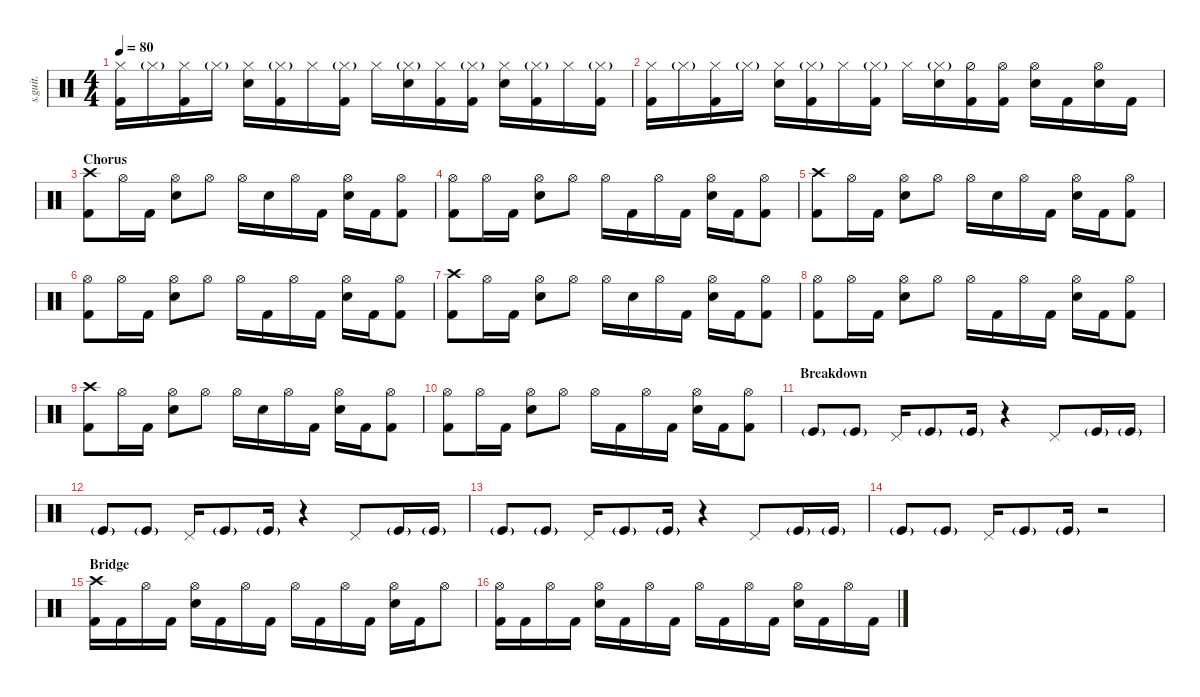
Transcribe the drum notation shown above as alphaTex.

\defaultSystemsLayout 4
\hideDynamics
\bracketExtendMode nobrackets
\track ("" "s.guit.") {instrument percussion}
\staff {score}
\articulation defaults
\ts (4 4)
\tempo 80
\clef neutral
\ks c
("Hi-Hat (closed)" "Kick (hit) 2").16{dy ff} "Hi-Hat (closed)"{g}.16 ("Hi-Hat (closed)" "Kick (hit) 2").16 "Hi-Hat (closed)"{g}.16 ("Hi-Hat (closed)" "Snare (hit) 2").16 ("Hi-Hat (closed)"{g} "Kick (hit) 2").16 "Hi-Hat (closed)".16 ("Hi-Hat (closed)"{g} "Kick (hit) 2").16 "Hi-Hat (closed)".16 ("Hi-Hat (closed)"{g} "Snare (hit) 2").16 ("Hi-Hat (closed)" "Kick (hit) 2").16 ("Hi-Hat (closed)"{g} "Kick (hit) 2").16 ("Hi-Hat (closed)" "Snare (hit) 2").16 ("Hi-Hat (closed)"{g} "Kick (hit) 2").16 "Hi-Hat (closed)".16 ("Hi-Hat (closed)"{g} "Kick (hit) 2").16 |
("Hi-Hat (closed)" "Kick (hit) 2").16 "Hi-Hat (closed)"{g}.16 ("Hi-Hat (closed)" "Kick (hit) 2").16 "Hi-Hat (closed)"{g}.16 ("Hi-Hat (closed)" "Snare (hit) 2").16 ("Hi-Hat (closed)"{g} "Kick (hit) 2").16 "Hi-Hat (closed)".16 ("Hi-Hat (closed)"{g} "Kick (hit) 2").16 "Hi-Hat (closed)".16 ("Hi-Hat (closed)"{g} "Snare (hit) 2").16 ("Hi-Hat (half)" "Kick (hit) 2").16 ("Hi-Hat (open)" "Kick (hit) 2").16 ("Hi-Hat (open)" "Snare (hit) 2").16 "Kick (hit) 2".16 ("Hi-Hat (open)" "Snare (hit) 2").16 "Kick (hit) 2".16 |
\section ("" "Chorus")
("Crash high (hit)" "Kick (hit) 2").8 "Hi-Hat (open)".16 "Kick (hit) 2".16 ("Hi-Hat (open)" "Snare (hit) 2").8 "Hi-Hat (open)".8 "Hi-Hat (open)".16 "Snare (hit) 2".16 "Hi-Hat (open)".16 "Kick (hit) 2".16 ("Hi-Hat (open)" "Snare (hit) 2").16 "Kick (hit) 2".16 ("Hi-Hat (open)" "Kick (hit) 2").8 |
("Hi-Hat (open)" "Kick (hit) 2").8 "Hi-Hat (open)".16 "Kick (hit) 2".16 ("Hi-Hat (open)" "Snare (hit) 2").8 "Hi-Hat (open)".8 "Hi-Hat (open)".16 "Kick (hit) 2".16 "Hi-Hat (open)".16 "Kick (hit) 2".16 ("Hi-Hat (open)" "Snare (hit) 2").16 "Kick (hit) 2".16 ("Hi-Hat (open)" "Kick (hit) 2").8 |
("Crash high (hit)" "Kick (hit) 2").8 "Hi-Hat (open)".16 "Kick (hit) 2".16 ("Hi-Hat (open)" "Snare (hit) 2").8 "Hi-Hat (open)".8 "Hi-Hat (open)".16 "Snare (hit) 2".16 "Hi-Hat (open)".16 "Kick (hit) 2".16 ("Hi-Hat (open)" "Snare (hit) 2").16 "Kick (hit) 2".16 ("Hi-Hat (open)" "Kick (hit) 2").8 |
("Hi-Hat (open)" "Kick (hit) 2").8 "Hi-Hat (open)".16 "Kick (hit) 2".16 ("Hi-Hat (open)" "Snare (hit) 2").8 "Hi-Hat (open)".8 "Hi-Hat (open)".16 "Kick (hit) 2".16 "Hi-Hat (open)".16 "Kick (hit) 2".16 ("Hi-Hat (open)" "Snare (hit) 2").16 "Kick (hit) 2".16 ("Hi-Hat (open)" "Kick (hit) 2").8 |
("Crash high (hit)" "Kick (hit) 2").8 "Hi-Hat (open)".16 "Kick (hit) 2".16 ("Hi-Hat (open)" "Snare (hit) 2").8 "Hi-Hat (open)".8 "Hi-Hat (open)".16 "Snare (hit) 2".16 "Hi-Hat (open)".16 "Kick (hit) 2".16 ("Hi-Hat (open)" "Snare (hit) 2").16 "Kick (hit) 2".16 ("Hi-Hat (open)" "Kick (hit) 2").8 |
("Hi-Hat (open)" "Kick (hit) 2").8 "Hi-Hat (open)".16 "Kick (hit) 2".16 ("Hi-Hat (open)" "Snare (hit) 2").8 "Hi-Hat (open)".8 "Hi-Hat (open)".16 "Kick (hit) 2".16 "Hi-Hat (open)".16 "Kick (hit) 2".16 ("Hi-Hat (open)" "Snare (hit) 2").16 "Kick (hit) 2".16 ("Hi-Hat (open)" "Kick (hit) 2").8 |
("Crash high (hit)" "Kick (hit) 2").8 "Hi-Hat (open)".16 "Kick (hit) 2".16 ("Hi-Hat (open)" "Snare (hit) 2").8 "Hi-Hat (open)".8 "Hi-Hat (open)".16 "Snare (hit) 2".16 "Hi-Hat (open)".16 "Kick (hit) 2".16 ("Hi-Hat (open)" "Snare (hit) 2").16 "Kick (hit) 2".16 ("Hi-Hat (open)" "Kick (hit) 2").8 |
("Hi-Hat (open)" "Kick (hit) 2").8 "Hi-Hat (open)".16 "Kick (hit) 2".16 ("Hi-Hat (open)" "Snare (hit) 2").8 "Hi-Hat (open)".8 "Hi-Hat (open)".16 "Kick (hit) 2".16 "Hi-Hat (open)".16 "Kick (hit) 2".16 ("Hi-Hat (open)" "Snare (hit) 2").16 "Kick (hit) 2".16 ("Hi-Hat (open)" "Kick (hit) 2").8 |
\section ("" "Breakdown")
"Kick (hit)"{g}.8 "Kick (hit)"{g}.8 "Pedal Hi-Hat (hit)".16 "Kick (hit)"{g}.8 "Kick (hit)"{g}.16 r.4 "Pedal Hi-Hat (hit)".8 "Kick (hit)"{g}.16 "Kick (hit)"{g}.16 |
"Kick (hit)"{g}.8 "Kick (hit)"{g}.8 "Pedal Hi-Hat (hit)".16 "Kick (hit)"{g}.8 "Kick (hit)"{g}.16 r.4 "Pedal Hi-Hat (hit)".8 "Kick (hit)"{g}.16 "Kick (hit)"{g}.16 |
"Kick (hit)"{g}.8 "Kick (hit)"{g}.8 "Pedal Hi-Hat (hit)".16 "Kick (hit)"{g}.8 "Kick (hit)"{g}.16 r.4 "Pedal Hi-Hat (hit)".8 "Kick (hit)"{g}.16 "Kick (hit)"{g}.16 |
"Kick (hit)"{g}.8 "Kick (hit)"{g}.8 "Pedal Hi-Hat (hit)".16 "Kick (hit)"{g}.8 "Kick (hit)"{g}.16 r.2 |
\section ("" "Bridge")
("Crash high (hit)" "Kick (hit) 2").16 "Kick (hit) 2".16 "Hi-Hat (open)".16 "Kick (hit) 2".16 ("Hi-Hat (open)" "Snare (hit) 2").16 "Kick (hit) 2".16 "Hi-Hat (open)".16 "Kick (hit) 2".16 "Hi-Hat (open)".16 "Kick (hit) 2".16 "Hi-Hat (open)".16 "Kick (hit) 2".16 ("Hi-Hat (open)" "Snare (hit) 2").16 "Kick (hit) 2".16 "Hi-Hat (open)".8 |
("Hi-Hat (open)" "Kick (hit) 2").16 "Kick (hit) 2".16 "Hi-Hat (open)".16 "Kick (hit) 2".16 ("Hi-Hat (open)" "Snare (hit) 2").16 "Kick (hit) 2".16 "Hi-Hat (open)".16 "Kick (hit) 2".16 "Hi-Hat (open)".16 "Kick (hit) 2".16 "Hi-Hat (open)".16 "Kick (hit) 2".16 ("Hi-Hat (open)" "Snare (hit) 2").16 "Kick (hit) 2".16 "Hi-Hat (open)".16 "Kick (hit) 2".16
